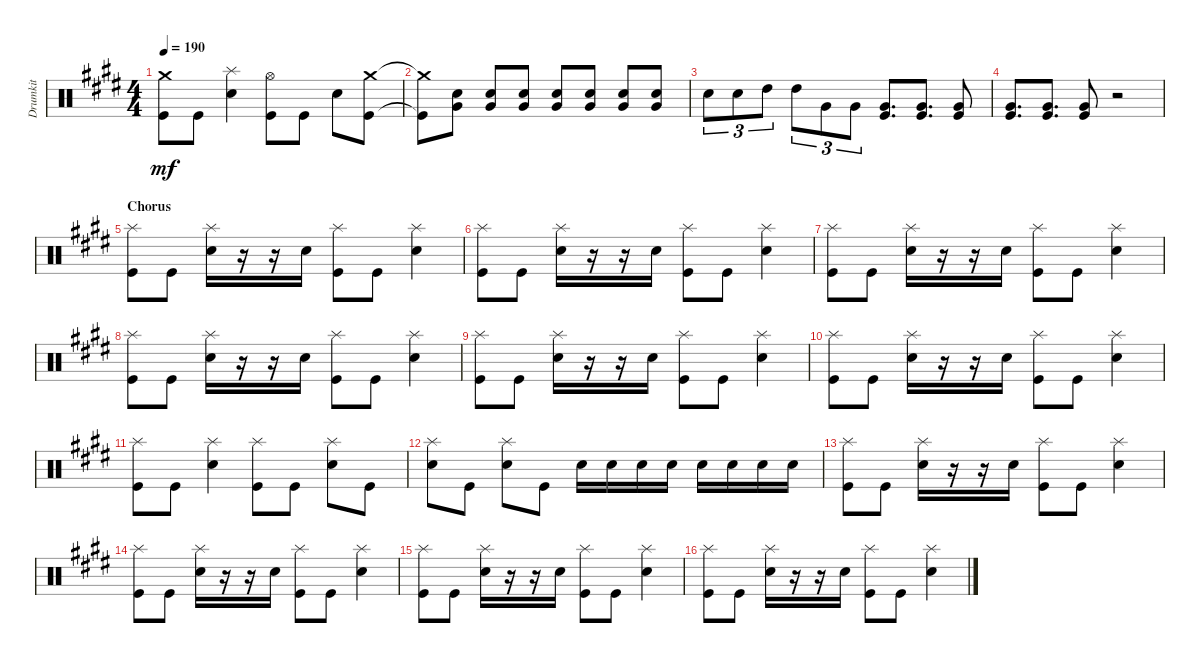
\track ("Drumkit" "Drumkit") {instrument percussion}
\staff {score}
\articulation defaults
\ts (4 4)
\tempo 190
\clef neutral
\ks e
("Crash medium (hit)"{t} "Kick (hit)"{t}).8{dy mf} "Kick (hit)".8 ("Snare (hit) 2" "Splash (hit)").4 ("Hi-Hat (open)" "Kick (hit)").8 "Kick (hit)".8 "Snare (hit) 2".8 ("Kick (hit)" "Crash medium (hit)").8 |
("Kick (hit)"{t} "Crash medium (hit)"{t}).8 ("Snare (hit) 2" "Very Low Tom (hit)").8 ("Snare (hit) 2" "Very Low Tom (hit)").8 ("Snare (hit) 2" "Very Low Tom (hit)").8 ("Snare (hit) 2" "Very Low Tom (hit)").8 ("Snare (hit) 2" "Very Low Tom (hit)").8 ("Snare (hit) 2" "Very Low Tom (hit)").8 ("Snare (hit) 2" "Very Low Tom (hit)").8 |
"Snare (hit) 2".8{tu (3 2)} "Snare (hit) 2".8{tu (3 2)} "High Tom (hit)".8{tu (3 2)} "High Tom (hit)".8{tu (3 2)} "Very Low Tom (hit)".8{tu (3 2)} "Very Low Tom (hit)".8{tu (3 2)} ("Kick (hit)" "Very Low Tom (hit)").8{d} ("Kick (hit)" "Very Low Tom (hit)").8{d} ("Kick (hit)" "Very Low Tom (hit)").8 |
("Kick (hit)" "Very Low Tom (hit)").8{d} ("Kick (hit)" "Very Low Tom (hit)").8{d} ("Kick (hit)" "Very Low Tom (hit)").8 r.2 |
\section ("" "Chorus")
("Kick (hit)" "Splash (hit)").8 "Kick (hit)".8 ("Splash (hit)" "Snare (hit) 2").16 r.16 r.16 "Snare (hit) 2".16 ("Splash (hit)" "Kick (hit)").8 "Kick (hit)".8 ("Splash (hit)" "Snare (hit) 2").4 |
("Kick (hit)" "Splash (hit)").8 "Kick (hit)".8 ("Splash (hit)" "Snare (hit) 2").16 r.16 r.16 "Snare (hit) 2".16 ("Splash (hit)" "Kick (hit)").8 "Kick (hit)".8 ("Splash (hit)" "Snare (hit) 2").4 |
("Kick (hit)" "Splash (hit)").8 "Kick (hit)".8 ("Splash (hit)" "Snare (hit) 2").16 r.16 r.16 "Snare (hit) 2".16 ("Splash (hit)" "Kick (hit)").8 "Kick (hit)".8 ("Splash (hit)" "Snare (hit) 2").4 |
("Kick (hit)" "Splash (hit)").8 "Kick (hit)".8 ("Splash (hit)" "Snare (hit) 2").16 r.16 r.16 "Snare (hit) 2".16 ("Splash (hit)" "Kick (hit)").8 "Kick (hit)".8 ("Splash (hit)" "Snare (hit) 2").4 |
("Kick (hit)" "Splash (hit)").8 "Kick (hit)".8 ("Splash (hit)" "Snare (hit) 2").16 r.16 r.16 "Snare (hit) 2".16 ("Splash (hit)" "Kick (hit)").8 "Kick (hit)".8 ("Splash (hit)" "Snare (hit) 2").4 |
("Kick (hit)" "Splash (hit)").8 "Kick (hit)".8 ("Splash (hit)" "Snare (hit) 2").16 r.16 r.16 "Snare (hit) 2".16 ("Splash (hit)" "Kick (hit)").8 "Kick (hit)".8 ("Splash (hit)" "Snare (hit) 2").4 |
("Splash (hit)" "Kick (hit)").8 "Kick (hit)".8 ("Splash (hit)" "Snare (hit) 2").4 ("Kick (hit)" "Splash (hit)").8 "Kick (hit)".8 ("Snare (hit) 2" "Splash (hit)").8 "Kick (hit)".8 |
("Snare (hit) 2" "Splash (hit)").8 "Kick (hit)".8 ("Snare (hit) 2" "Splash (hit)").8 "Kick (hit)".8 "Snare (hit) 2".16 "Snare (hit) 2".16 "Snare (hit) 2".16 "Snare (hit) 2".16 "Snare (hit) 2".16 "Snare (hit) 2".16 "Snare (hit) 2".16 "Snare (hit) 2".16 |
("Kick (hit)" "Splash (hit)").8 "Kick (hit)".8 ("Splash (hit)" "Snare (hit) 2").16 r.16 r.16 "Snare (hit) 2".16 ("Splash (hit)" "Kick (hit)").8 "Kick (hit)".8 ("Splash (hit)" "Snare (hit) 2").4 |
("Kick (hit)" "Splash (hit)").8 "Kick (hit)".8 ("Splash (hit)" "Snare (hit) 2").16 r.16 r.16 "Snare (hit) 2".16 ("Splash (hit)" "Kick (hit)").8 "Kick (hit)".8 ("Splash (hit)" "Snare (hit) 2").4 |
("Kick (hit)" "Splash (hit)").8 "Kick (hit)".8 ("Splash (hit)" "Snare (hit) 2").16 r.16 r.16 "Snare (hit) 2".16 ("Splash (hit)" "Kick (hit)").8 "Kick (hit)".8 ("Splash (hit)" "Snare (hit) 2").4 |
("Kick (hit)" "Splash (hit)").8 "Kick (hit)".8 ("Splash (hit)" "Snare (hit) 2").16 r.16 r.16 "Snare (hit) 2".16 ("Splash (hit)" "Kick (hit)").8 "Kick (hit)".8 ("Splash (hit)" "Snare (hit) 2").4
